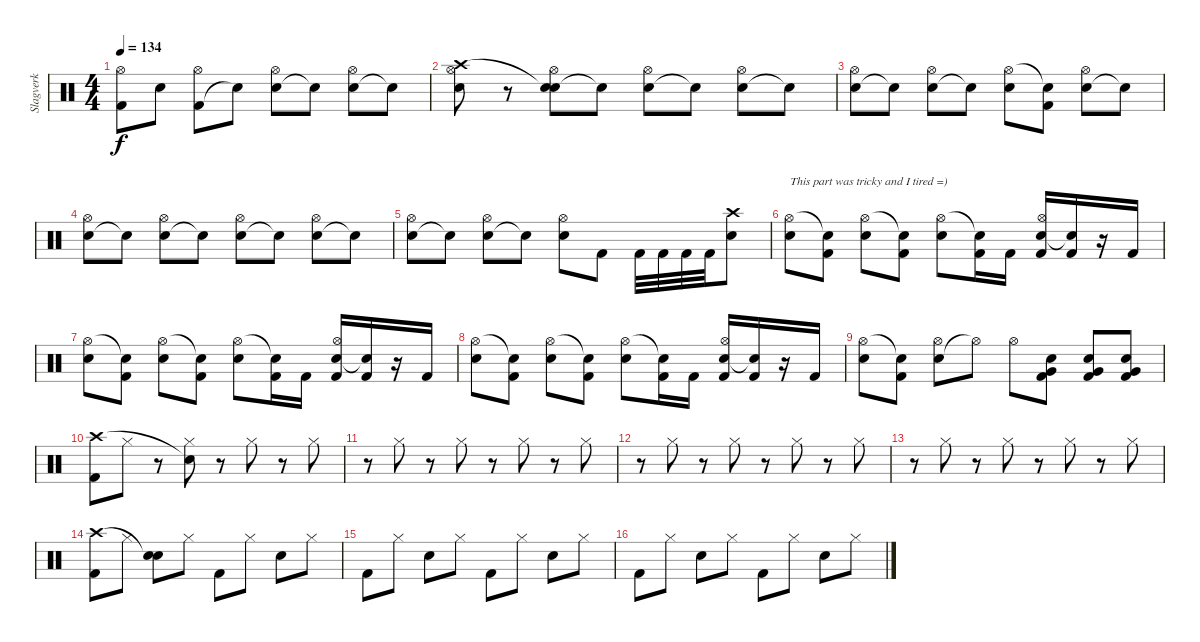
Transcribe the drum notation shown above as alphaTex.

\track ("Slagverk" "Slagverk") {instrument percussion}
\staff {score}
\articulation defaults
\ts (4 4)
\tempo 134
\clef neutral
\ks c
("Kick (hit) 2" "Hi-Hat (open)").8{dy f} "Electric Snare (hit)".8 ("Kick (hit) 2" "Hi-Hat (open)").8 "Snare (hit)"{t}.8 ("Electric Snare (hit)" "Hi-Hat (open)").8 "Snare (hit)"{t}.8 ("Electric Snare (hit)" "Hi-Hat (open)").8 "Snare (hit)"{t}.8 |
("Electric Snare (hit)" "Hi-Hat (open)" "Crash high (hit)").8 r.8 ("Electric Snare (hit)" "Hi-Hat (open)" "Snare (hit)"{t}).8 "Snare (hit)"{t}.8 ("Electric Snare (hit)" "Hi-Hat (open)").8 "Snare (hit)"{t}.8 ("Electric Snare (hit)" "Hi-Hat (open)").8 "Snare (hit)"{t}.8 |
("Electric Snare (hit)" "Hi-Hat (open)").8 "Snare (hit)"{t}.8 ("Electric Snare (hit)" "Hi-Hat (open)").8 "Snare (hit)"{t}.8 ("Electric Snare (hit)" "Hi-Hat (open)").8 ("Kick (hit) 2" "Snare (hit)"{t}).8 ("Electric Snare (hit)" "Hi-Hat (open)").8 "Snare (hit)"{t}.8 |
("Electric Snare (hit)" "Hi-Hat (open)").8 "Snare (hit)"{t}.8 ("Electric Snare (hit)" "Hi-Hat (open)").8 "Snare (hit)"{t}.8 ("Electric Snare (hit)" "Hi-Hat (open)").8 "Snare (hit)"{t}.8 ("Electric Snare (hit)" "Hi-Hat (open)").8 "Snare (hit)"{t}.8 |
("Electric Snare (hit)" "Hi-Hat (open)").8 "Snare (hit)"{t}.8 ("Electric Snare (hit)" "Hi-Hat (open)").8 "Snare (hit)"{t}.8 ("Electric Snare (hit)" "Hi-Hat (open)").8 "Kick (hit) 2".8 "Kick (hit) 2".32 "Kick (hit) 2".32 "Kick (hit) 2".32 "Kick (hit) 2".32 ("Electric Snare (hit)" "Crash high (hit)").8 |
("Electric Snare (hit)" "Hi-Hat (open)").8{txt "This part was tricky and I tired =)"} ("Kick (hit) 2" "Snare (hit)"{t}).8 ("Electric Snare (hit)" "Hi-Hat (open)").8 ("Kick (hit) 2" "Snare (hit)"{t}).8 ("Electric Snare (hit)" "Hi-Hat (open)").8 ("Kick (hit) 2" "Snare (hit)"{t}).16 "Kick (hit) 2".16 ("Kick (hit) 2" "Electric Snare (hit)" "Hi-Hat (open)").16 ("Kick (hit) 2" "Snare (hit)"{t}).16 r.16 "Kick (hit) 2".16 |
("Electric Snare (hit)" "Hi-Hat (open)").8 ("Kick (hit) 2" "Snare (hit)"{t}).8 ("Electric Snare (hit)" "Hi-Hat (open)").8 ("Kick (hit) 2" "Snare (hit)"{t}).8 ("Electric Snare (hit)" "Hi-Hat (open)").8 ("Kick (hit) 2" "Snare (hit)"{t}).16 "Kick (hit) 2".16 ("Kick (hit) 2" "Electric Snare (hit)" "Hi-Hat (open)").16 ("Kick (hit) 2" "Snare (hit)"{t}).16 r.16 "Kick (hit) 2".16 |
("Electric Snare (hit)" "Hi-Hat (open)").8 ("Kick (hit) 2" "Snare (hit)"{t}).8 ("Electric Snare (hit)" "Hi-Hat (open)").8 ("Kick (hit) 2" "Snare (hit)"{t}).8 ("Electric Snare (hit)" "Hi-Hat (open)").8 ("Kick (hit) 2" "Snare (hit)"{t}).16 "Kick (hit) 2".16 ("Kick (hit) 2" "Electric Snare (hit)" "Hi-Hat (open)").16 ("Kick (hit) 2" "Snare (hit)"{t}).16 r.16 "Kick (hit) 2".16 |
("Electric Snare (hit)" "Hi-Hat (open)").8 ("Kick (hit) 2" "Snare (hit)"{t}).8 ("Electric Snare (hit)" "Hi-Hat (open)").8 "Hi-Hat (open)"{t}.8 "Hi-Hat (open)".8 ("Kick (hit) 2" "Electric Snare (hit)" "Very Low Tom (hit)").8 ("Kick (hit) 2" "Electric Snare (hit)" "Very Low Tom (hit)").8 ("Kick (hit) 2" "Electric Snare (hit)" "Very Low Tom (hit)").8 |
("Kick (hit) 2" "Crash high (hit)").8 "Hi-Hat (closed)".8 r.8 ("Hi-Hat (closed)" "Snare (hit)"{t}).8 r.8 "Hi-Hat (closed)".8 r.8 "Hi-Hat (closed)".8 |
r.8 "Hi-Hat (closed)".8 r.8 "Hi-Hat (closed)".8 r.8 "Hi-Hat (closed)".8 r.8 "Hi-Hat (closed)".8 |
r.8 "Hi-Hat (closed)".8 r.8 "Hi-Hat (closed)".8 r.8 "Hi-Hat (closed)".8 r.8 "Hi-Hat (closed)".8 |
r.8 "Hi-Hat (closed)".8 r.8 "Hi-Hat (closed)".8 r.8 "Hi-Hat (closed)".8 r.8 "Hi-Hat (closed)".8 |
("Kick (hit) 2" "Crash high (hit)").8 "Hi-Hat (closed)".8 ("Electric Snare (hit)" "Snare (hit)"{t}).8 "Hi-Hat (closed)".8 "Kick (hit) 2".8 "Hi-Hat (closed)".8 "Electric Snare (hit)".8 "Hi-Hat (closed)".8 |
"Kick (hit) 2".8 "Hi-Hat (closed)".8 "Electric Snare (hit)".8 "Hi-Hat (closed)".8 "Kick (hit) 2".8 "Hi-Hat (closed)".8 "Electric Snare (hit)".8 "Hi-Hat (closed)".8 |
"Kick (hit) 2".8 "Hi-Hat (closed)".8 "Electric Snare (hit)".8 "Hi-Hat (closed)".8 "Kick (hit) 2".8 "Hi-Hat (closed)".8 "Electric Snare (hit)".8 "Hi-Hat (closed)".8
